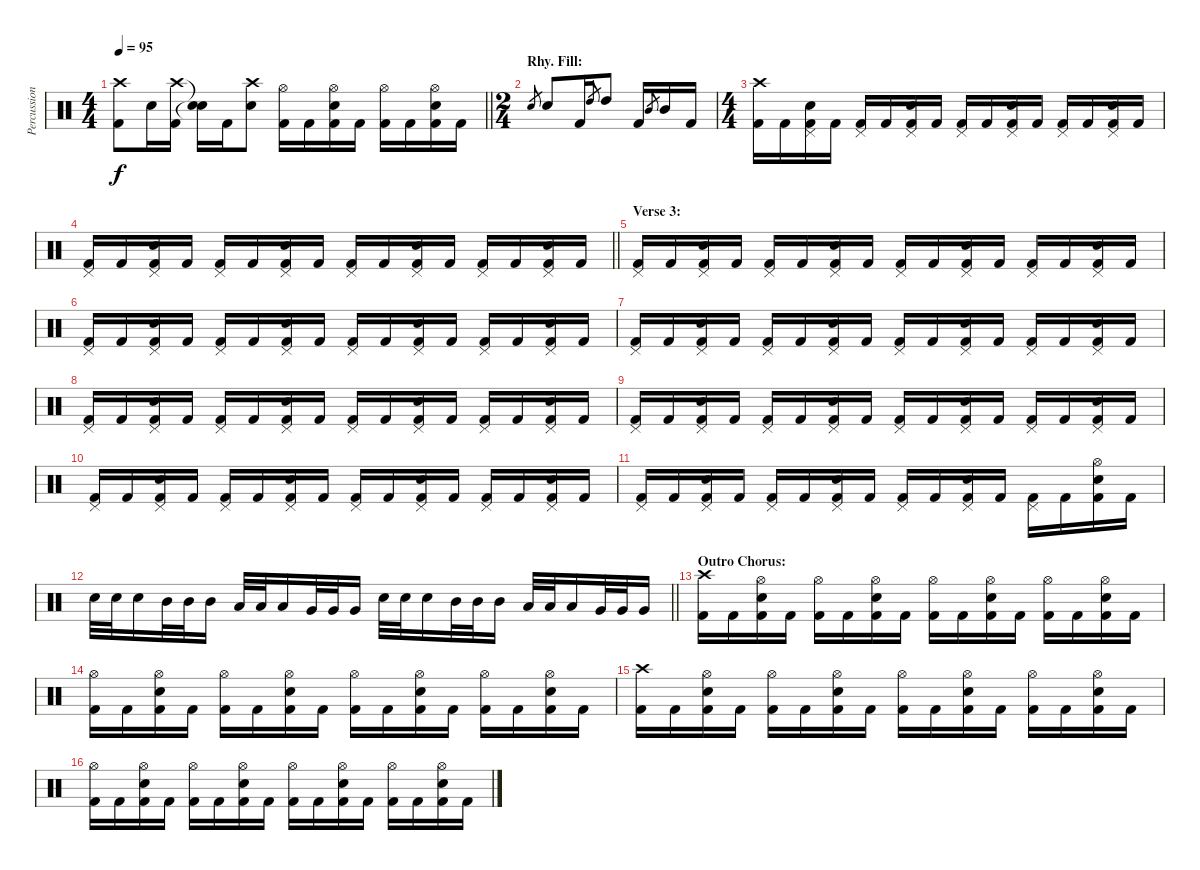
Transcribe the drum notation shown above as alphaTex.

\track ("Percussion" "Percussion") {instrument percussion}
\staff {score}
\articulation defaults
\ts (4 4)
\tempo 95
\clef neutral
\barLineRight lightlight
\ks c
("Crash high (hit)" "Kick (hit) 2").8{dy f} "Electric Snare (hit)".16 ("Crash high (hit)" "Kick (hit) 2").16 ("Snare (hit)"{t} "Snare (hit)"{t}).16 "Kick (hit) 2".16 ("Crash high (hit)" "Electric Snare (hit)").8 ("Hi-Hat (open)" "Kick (hit) 2").16 "Kick (hit) 2".16 ("Hi-Hat (open)" "Electric Snare (hit)" "Kick (hit) 2").16 "Kick (hit) 2".16 ("Hi-Hat (open)" "Kick (hit) 2").16 "Kick (hit) 2".16 ("Hi-Hat (open)" "Electric Snare (hit)" "Kick (hit) 2").16 "Kick (hit) 2".16 |
\ts (2 4)
\section ("" "Rhy. Fill:")
"Electric Snare (hit)".8{gr} "Electric Snare (hit)".8 "Kick (hit) 2".16 "High Tom (hit)".8{gr} "High Tom (hit)".8 "Kick (hit) 2".16 "Mid Tom (hit)".8{gr} "Mid Tom (hit)".16 "Kick (hit) 2".16 |
\ts (4 4)
("Crash high (hit)" "Kick (hit) 2").16 "Kick (hit) 2".16 ("Pedal Hi-Hat (hit)" "Electric Snare (hit)" "Kick (hit) 2").16 "Kick (hit) 2".16 ("Pedal Hi-Hat (hit)" "Kick (hit) 2").16 "Kick (hit) 2".16 ("Pedal Hi-Hat (hit)" "Electric Snare (hit)" "Kick (hit) 2").16 "Kick (hit) 2".16 ("Pedal Hi-Hat (hit)" "Kick (hit) 2").16 "Kick (hit) 2".16 ("Pedal Hi-Hat (hit)" "Electric Snare (hit)" "Kick (hit) 2").16 "Kick (hit) 2".16 ("Pedal Hi-Hat (hit)" "Kick (hit) 2").16 "Kick (hit) 2".16 ("Pedal Hi-Hat (hit)" "Electric Snare (hit)" "Kick (hit) 2").16 "Kick (hit) 2".16 |
\barLineRight lightlight
("Pedal Hi-Hat (hit)" "Kick (hit) 2").16 "Kick (hit) 2".16 ("Pedal Hi-Hat (hit)" "Electric Snare (hit)" "Kick (hit) 2").16 "Kick (hit) 2".16 ("Pedal Hi-Hat (hit)" "Kick (hit) 2").16 "Kick (hit) 2".16 ("Pedal Hi-Hat (hit)" "Electric Snare (hit)" "Kick (hit) 2").16 "Kick (hit) 2".16 ("Pedal Hi-Hat (hit)" "Kick (hit) 2").16 "Kick (hit) 2".16 ("Pedal Hi-Hat (hit)" "Electric Snare (hit)" "Kick (hit) 2").16 "Kick (hit) 2".16 ("Pedal Hi-Hat (hit)" "Kick (hit) 2").16 "Kick (hit) 2".16 ("Pedal Hi-Hat (hit)" "Electric Snare (hit)" "Kick (hit) 2").16 "Kick (hit) 2".16 |
\section ("" "Verse 3:")
("Pedal Hi-Hat (hit)" "Kick (hit) 2").16 "Kick (hit) 2".16 ("Pedal Hi-Hat (hit)" "Electric Snare (hit)" "Kick (hit) 2").16 "Kick (hit) 2".16 ("Pedal Hi-Hat (hit)" "Kick (hit) 2").16 "Kick (hit) 2".16 ("Pedal Hi-Hat (hit)" "Electric Snare (hit)" "Kick (hit) 2").16 "Kick (hit) 2".16 ("Pedal Hi-Hat (hit)" "Kick (hit) 2").16 "Kick (hit) 2".16 ("Pedal Hi-Hat (hit)" "Electric Snare (hit)" "Kick (hit) 2").16 "Kick (hit) 2".16 ("Pedal Hi-Hat (hit)" "Kick (hit) 2").16 "Kick (hit) 2".16 ("Pedal Hi-Hat (hit)" "Electric Snare (hit)" "Kick (hit) 2").16 "Kick (hit) 2".16 |
("Pedal Hi-Hat (hit)" "Kick (hit) 2").16 "Kick (hit) 2".16 ("Pedal Hi-Hat (hit)" "Electric Snare (hit)" "Kick (hit) 2").16 "Kick (hit) 2".16 ("Pedal Hi-Hat (hit)" "Kick (hit) 2").16 "Kick (hit) 2".16 ("Pedal Hi-Hat (hit)" "Electric Snare (hit)" "Kick (hit) 2").16 "Kick (hit) 2".16 ("Pedal Hi-Hat (hit)" "Kick (hit) 2").16 "Kick (hit) 2".16 ("Pedal Hi-Hat (hit)" "Electric Snare (hit)" "Kick (hit) 2").16 "Kick (hit) 2".16 ("Pedal Hi-Hat (hit)" "Kick (hit) 2").16 "Kick (hit) 2".16 ("Pedal Hi-Hat (hit)" "Electric Snare (hit)" "Kick (hit) 2").16 "Kick (hit) 2".16 |
("Pedal Hi-Hat (hit)" "Kick (hit) 2").16 "Kick (hit) 2".16 ("Pedal Hi-Hat (hit)" "Electric Snare (hit)" "Kick (hit) 2").16 "Kick (hit) 2".16 ("Pedal Hi-Hat (hit)" "Kick (hit) 2").16 "Kick (hit) 2".16 ("Pedal Hi-Hat (hit)" "Electric Snare (hit)" "Kick (hit) 2").16 "Kick (hit) 2".16 ("Pedal Hi-Hat (hit)" "Kick (hit) 2").16 "Kick (hit) 2".16 ("Pedal Hi-Hat (hit)" "Electric Snare (hit)" "Kick (hit) 2").16 "Kick (hit) 2".16 ("Pedal Hi-Hat (hit)" "Kick (hit) 2").16 "Kick (hit) 2".16 ("Pedal Hi-Hat (hit)" "Electric Snare (hit)" "Kick (hit) 2").16 "Kick (hit) 2".16 |
("Pedal Hi-Hat (hit)" "Kick (hit) 2").16 "Kick (hit) 2".16 ("Pedal Hi-Hat (hit)" "Electric Snare (hit)" "Kick (hit) 2").16 "Kick (hit) 2".16 ("Pedal Hi-Hat (hit)" "Kick (hit) 2").16 "Kick (hit) 2".16 ("Pedal Hi-Hat (hit)" "Electric Snare (hit)" "Kick (hit) 2").16 "Kick (hit) 2".16 ("Pedal Hi-Hat (hit)" "Kick (hit) 2").16 "Kick (hit) 2".16 ("Pedal Hi-Hat (hit)" "Electric Snare (hit)" "Kick (hit) 2").16 "Kick (hit) 2".16 ("Pedal Hi-Hat (hit)" "Kick (hit) 2").16 "Kick (hit) 2".16 ("Pedal Hi-Hat (hit)" "Electric Snare (hit)" "Kick (hit) 2").16 "Kick (hit) 2".16 |
("Pedal Hi-Hat (hit)" "Kick (hit) 2").16 "Kick (hit) 2".16 ("Pedal Hi-Hat (hit)" "Electric Snare (hit)" "Kick (hit) 2").16 "Kick (hit) 2".16 ("Pedal Hi-Hat (hit)" "Kick (hit) 2").16 "Kick (hit) 2".16 ("Pedal Hi-Hat (hit)" "Electric Snare (hit)" "Kick (hit) 2").16 "Kick (hit) 2".16 ("Pedal Hi-Hat (hit)" "Kick (hit) 2").16 "Kick (hit) 2".16 ("Pedal Hi-Hat (hit)" "Electric Snare (hit)" "Kick (hit) 2").16 "Kick (hit) 2".16 ("Pedal Hi-Hat (hit)" "Kick (hit) 2").16 "Kick (hit) 2".16 ("Pedal Hi-Hat (hit)" "Electric Snare (hit)" "Kick (hit) 2").16 "Kick (hit) 2".16 |
("Pedal Hi-Hat (hit)" "Kick (hit) 2").16 "Kick (hit) 2".16 ("Pedal Hi-Hat (hit)" "Electric Snare (hit)" "Kick (hit) 2").16 "Kick (hit) 2".16 ("Pedal Hi-Hat (hit)" "Kick (hit) 2").16 "Kick (hit) 2".16 ("Pedal Hi-Hat (hit)" "Electric Snare (hit)" "Kick (hit) 2").16 "Kick (hit) 2".16 ("Pedal Hi-Hat (hit)" "Kick (hit) 2").16 "Kick (hit) 2".16 ("Pedal Hi-Hat (hit)" "Electric Snare (hit)" "Kick (hit) 2").16 "Kick (hit) 2".16 ("Pedal Hi-Hat (hit)" "Kick (hit) 2").16 "Kick (hit) 2".16 ("Pedal Hi-Hat (hit)" "Electric Snare (hit)" "Kick (hit) 2").16 "Kick (hit) 2".16 |
("Pedal Hi-Hat (hit)" "Kick (hit) 2").16 "Kick (hit) 2".16 ("Pedal Hi-Hat (hit)" "Electric Snare (hit)" "Kick (hit) 2").16 "Kick (hit) 2".16 ("Pedal Hi-Hat (hit)" "Kick (hit) 2").16 "Kick (hit) 2".16 ("Pedal Hi-Hat (hit)" "Electric Snare (hit)" "Kick (hit) 2").16 "Kick (hit) 2".16 ("Pedal Hi-Hat (hit)" "Kick (hit) 2").16 "Kick (hit) 2".16 ("Pedal Hi-Hat (hit)" "Electric Snare (hit)" "Kick (hit) 2").16 "Kick (hit) 2".16 ("Pedal Hi-Hat (hit)" "Kick (hit) 2").16 "Kick (hit) 2".16 ("Hi-Hat (open)" "Electric Snare (hit)" "Kick (hit) 2").16 "Kick (hit) 2".16 |
\barLineRight lightlight "Electric Snare (hit)".32 "Electric Snare (hit)".32 "Electric Snare (hit)".16 "Mid Tom (hit)".32 "Mid Tom (hit)".32 "Mid Tom (hit)".16 "Low Tom (hit)".32 "Low Tom (hit)".32 "Low Tom (hit)".16 "Very Low Tom (hit)".32 "Very Low Tom (hit)".32 "Very Low Tom (hit)".16 "Electric Snare (hit)".32 "Electric Snare (hit)".32 "Electric Snare (hit)".16 "Mid Tom (hit)".32 "Mid Tom (hit)".32 "Mid Tom (hit)".16 "Low Tom (hit)".32 "Low Tom (hit)".32 "Low Tom (hit)".16 "Very Low Tom (hit)".32 "Very Low Tom (hit)".32 "Very Low Tom (hit)".16
|
\section ("" "Outro Chorus:")
("Crash high (hit)" "Kick (hit) 2").16 "Kick (hit) 2".16 ("Hi-Hat (open)" "Electric Snare (hit)" "Kick (hit) 2").16 "Kick (hit) 2".16 ("Hi-Hat (open)" "Kick (hit) 2").16 "Kick (hit) 2".16 ("Hi-Hat (open)" "Electric Snare (hit)" "Kick (hit) 2").16 "Kick (hit) 2".16 ("Hi-Hat (open)" "Kick (hit) 2").16 "Kick (hit) 2".16 ("Hi-Hat (open)" "Electric Snare (hit)" "Kick (hit) 2").16 "Kick (hit) 2".16 ("Hi-Hat (open)" "Kick (hit) 2").16 "Kick (hit) 2".16 ("Hi-Hat (open)" "Electric Snare (hit)" "Kick (hit) 2").16 "Kick (hit) 2".16 |
("Hi-Hat (open)" "Kick (hit) 2").16 "Kick (hit) 2".16 ("Hi-Hat (open)" "Electric Snare (hit)" "Kick (hit) 2").16 "Kick (hit) 2".16 ("Hi-Hat (open)" "Kick (hit) 2").16 "Kick (hit) 2".16 ("Hi-Hat (open)" "Electric Snare (hit)" "Kick (hit) 2").16 "Kick (hit) 2".16 ("Hi-Hat (open)" "Kick (hit) 2").16 "Kick (hit) 2".16 ("Hi-Hat (open)" "Electric Snare (hit)" "Kick (hit) 2").16 "Kick (hit) 2".16 ("Hi-Hat (open)" "Kick (hit) 2").16 "Kick (hit) 2".16 ("Hi-Hat (open)" "Electric Snare (hit)" "Kick (hit) 2").16 "Kick (hit) 2".16 |
("Crash high (hit)" "Kick (hit) 2").16 "Kick (hit) 2".16 ("Hi-Hat (open)" "Electric Snare (hit)" "Kick (hit) 2").16 "Kick (hit) 2".16 ("Hi-Hat (open)" "Kick (hit) 2").16 "Kick (hit) 2".16 ("Hi-Hat (open)" "Electric Snare (hit)" "Kick (hit) 2").16 "Kick (hit) 2".16 ("Hi-Hat (open)" "Kick (hit) 2").16 "Kick (hit) 2".16 ("Hi-Hat (open)" "Electric Snare (hit)" "Kick (hit) 2").16 "Kick (hit) 2".16 ("Hi-Hat (open)" "Kick (hit) 2").16 "Kick (hit) 2".16 ("Hi-Hat (open)" "Electric Snare (hit)" "Kick (hit) 2").16 "Kick (hit) 2".16 |
("Hi-Hat (open)" "Kick (hit) 2").16 "Kick (hit) 2".16 ("Hi-Hat (open)" "Electric Snare (hit)" "Kick (hit) 2").16 "Kick (hit) 2".16 ("Hi-Hat (open)" "Kick (hit) 2").16 "Kick (hit) 2".16 ("Hi-Hat (open)" "Electric Snare (hit)" "Kick (hit) 2").16 "Kick (hit) 2".16 ("Hi-Hat (open)" "Kick (hit) 2").16 "Kick (hit) 2".16 ("Hi-Hat (open)" "Electric Snare (hit)" "Kick (hit) 2").16 "Kick (hit) 2".16 ("Hi-Hat (open)" "Kick (hit) 2").16 "Kick (hit) 2".16 ("Hi-Hat (open)" "Electric Snare (hit)" "Kick (hit) 2").16 "Kick (hit) 2".16
